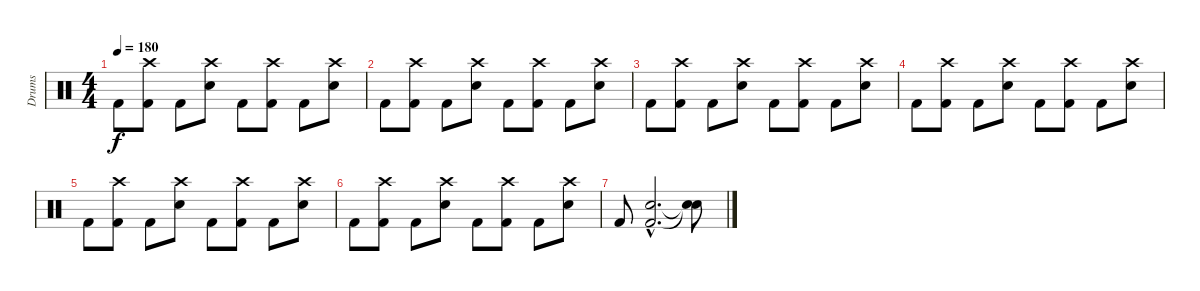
\track ("Drums" "Drums") {instrument percussion}
\staff {score}
\articulation defaults
\ts (4 4)
\tempo 180
\clef neutral
\ks c "Kick (hit) 2".8{dy f}
("Crash high (hit)" "Kick (hit) 2").8 "Kick (hit) 2".8 ("Crash high (hit)" "Electric Snare (hit)").8 "Kick (hit) 2".8 ("Crash high (hit)" "Kick (hit) 2").8 "Kick (hit) 2".8 ("Crash high (hit)" "Electric Snare (hit)").8 |
"Kick (hit) 2".8 ("Crash high (hit)" "Kick (hit) 2").8 "Kick (hit) 2".8 ("Crash high (hit)" "Electric Snare (hit)").8 "Kick (hit) 2".8 ("Crash high (hit)" "Kick (hit) 2").8 "Kick (hit) 2".8 ("Crash high (hit)" "Electric Snare (hit)").8 |
"Kick (hit) 2".8 ("Crash high (hit)" "Kick (hit) 2").8 "Kick (hit) 2".8 ("Crash high (hit)" "Electric Snare (hit)").8 "Kick (hit) 2".8 ("Crash high (hit)" "Kick (hit) 2").8 "Kick (hit) 2".8 ("Crash high (hit)" "Electric Snare (hit)").8 |
"Kick (hit) 2".8 ("Crash high (hit)" "Kick (hit) 2").8 "Kick (hit) 2".8 ("Crash high (hit)" "Electric Snare (hit)").8 "Kick (hit) 2".8 ("Crash high (hit)" "Kick (hit) 2").8 "Kick (hit) 2".8 ("Crash high (hit)" "Electric Snare (hit)").8 |
"Kick (hit) 2".8 ("Crash high (hit)" "Kick (hit) 2").8 "Kick (hit) 2".8 ("Crash high (hit)" "Electric Snare (hit)").8 "Kick (hit) 2".8 ("Crash high (hit)" "Kick (hit) 2").8 "Kick (hit) 2".8 ("Crash high (hit)" "Electric Snare (hit)").8 |
"Kick (hit) 2".8 ("Crash high (hit)" "Kick (hit) 2").8 "Kick (hit) 2".8 ("Crash high (hit)" "Electric Snare (hit)").8 "Kick (hit) 2".8 ("Crash high (hit)" "Kick (hit) 2").8 "Kick (hit) 2".8 ("Crash high (hit)" "Electric Snare (hit)").8 |
"Kick (hit) 2".8 ("Kick (hit) 2"{hac} "Electric Snare (hit)"{hac}).2{d} ("Snare (hit)"{t} "Snare (hit)"{t}).8
